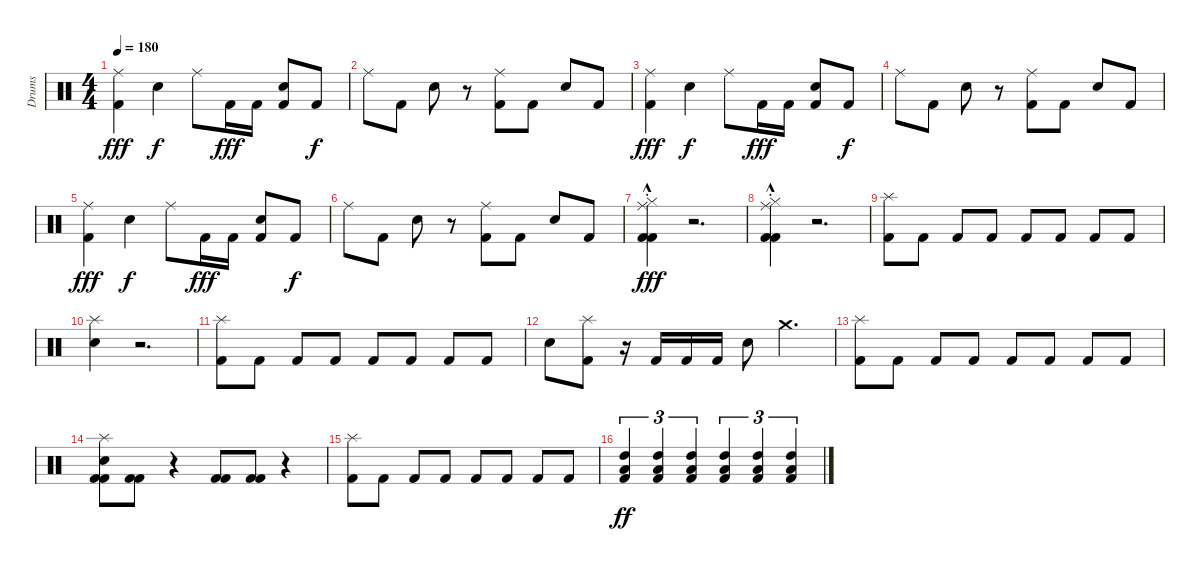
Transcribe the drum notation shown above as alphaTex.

\track ("Drums" "Drums") {instrument percussion}
\staff {score}
\articulation defaults
\ts (4 4)
\tempo 180
\clef neutral
\ks c
("Ride (middle)" "Kick (hit) 2").4{dy fff} "Snare (hit) 2".4{dy f} "Ride (middle)".8 "Kick (hit) 2".16{dy fff} "Kick (hit) 2".16 ("Snare (hit) 2" "Kick (hit) 2").8 "Kick (hit) 2".8{dy f} |
"Ride (middle)".8 "Kick (hit) 2".8 "Snare (hit) 2".8 r.8 ("Ride (middle)" "Kick (hit) 2").8 "Kick (hit) 2".8 "Snare (hit) 2".8 "Kick (hit) 2".8 |
("Ride (middle)" "Kick (hit) 2").4{dy fff} "Snare (hit) 2".4{dy f} "Ride (middle)".8 "Kick (hit) 2".16{dy fff} "Kick (hit) 2".16 ("Snare (hit) 2" "Kick (hit) 2").8 "Kick (hit) 2".8{dy f} |
"Ride (middle)".8 "Kick (hit) 2".8 "Snare (hit) 2".8 r.8 ("Ride (middle)" "Kick (hit) 2").8 "Kick (hit) 2".8 "Snare (hit) 2".8 "Kick (hit) 2".8 |
("Ride (middle)" "Kick (hit) 2").4{dy fff} "Snare (hit) 2".4{dy f} "Ride (middle)".8 "Kick (hit) 2".16{dy fff} "Kick (hit) 2".16 ("Snare (hit) 2" "Kick (hit) 2").8 "Kick (hit) 2".8{dy f} |
"Ride (middle)".8 "Kick (hit) 2".8 "Snare (hit) 2".8 r.8 ("Ride (middle)" "Kick (hit) 2").8 "Kick (hit) 2".8 "Snare (hit) 2".8 "Kick (hit) 2".8 |
("Hi-Hat (closed)" "Ride (middle)"{hac st} "Kick (hit) 2" "Kick (hit) 2").4{dy fff} r.2{d} |
("Hi-Hat (closed)" "Ride (middle)"{hac st} "Kick (hit) 2" "Kick (hit) 2").4 r.2{d} |
("Splash (hit)" "Kick (hit) 2").8 "Kick (hit) 2".8 "Kick (hit) 2".8 "Kick (hit) 2".8 "Kick (hit) 2".8 "Kick (hit) 2".8 "Kick (hit) 2".8 "Kick (hit) 2".8 |
("Splash (hit)" "Snare (hit) 2").4 r.2{d} |
("Splash (hit)" "Kick (hit) 2").8 "Kick (hit) 2".8 "Kick (hit) 2".8 "Kick (hit) 2".8 "Kick (hit) 2".8 "Kick (hit) 2".8 "Kick (hit) 2".8 "Kick (hit) 2".8 |
"Snare (hit) 2".8 ("Splash (hit)" "Kick (hit) 2").8 r.16 "Kick (hit) 2".16 "Kick (hit) 2".16 "Kick (hit) 2".16 "Snare (hit) 2".8 "Crash medium (hit)".4{d} |
("Splash (hit)" "Kick (hit) 2").8 "Kick (hit) 2".8 "Kick (hit) 2".8 "Kick (hit) 2".8 "Kick (hit) 2".8 "Kick (hit) 2".8 "Kick (hit) 2".8 "Kick (hit) 2".8 |
("Splash (hit)" "Snare (hit) 2" "Kick (hit) 2" "Kick (hit) 2").8 ("Kick (hit) 2" "Kick (hit) 2").8 r.4 ("Kick (hit) 2" "Kick (hit) 2").8 ("Kick (hit) 2" "Kick (hit) 2").8 r.4 |
("Splash (hit)" "Kick (hit) 2").8 "Kick (hit) 2".8 "Kick (hit) 2".8 "Kick (hit) 2".8 "Kick (hit) 2".8 "Kick (hit) 2".8 "Kick (hit) 2".8 "Kick (hit) 2".8 |
("Low Tom (hit)" "High Tom (hit)" "Kick (hit) 2").4{tu (3 2) dy ff} ("Low Tom (hit)" "High Tom (hit)" "Kick (hit) 2").4{tu (3 2)} ("Low Tom (hit)" "High Tom (hit)" "Kick (hit) 2").4{tu (3 2)} ("Low Tom (hit)" "High Tom (hit)" "Kick (hit) 2").4{tu (3 2)} ("High Tom (hit)" "Low Tom (hit)" "Kick (hit) 2").4{tu (3 2)} ("High Tom (hit)" "Low Tom (hit)" "Kick (hit) 2").4{tu (3 2)}
